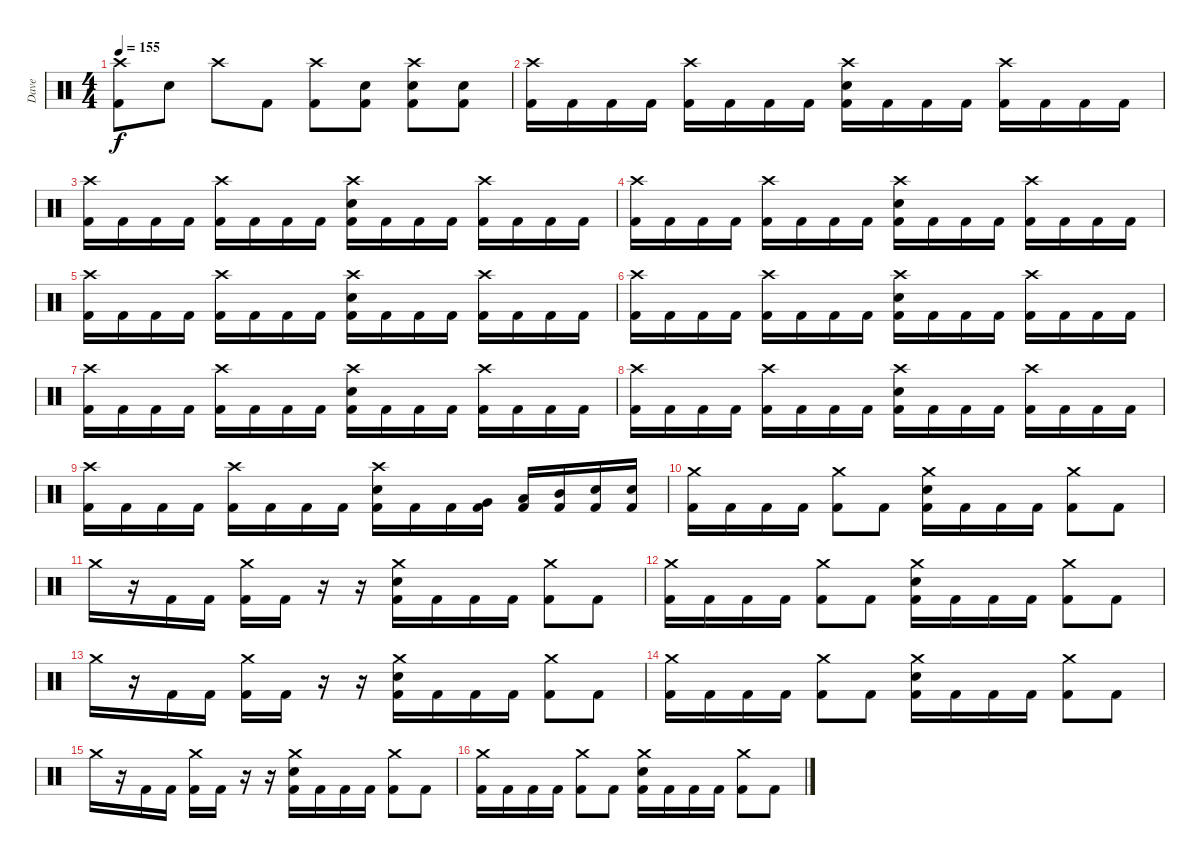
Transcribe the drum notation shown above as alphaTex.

\track ("Dave" "Dave") {instrument percussion}
\staff {score}
\articulation defaults
\ts (4 4)
\tempo 155
\clef neutral
\ks c
("Crash high (hit)" "Kick (hit) 2").8{dy f} "Snare (hit) 2".8 "Crash high (hit)".8 "Kick (hit) 2".8 ("Crash high (hit)" "Kick (hit) 2").8 ("Snare (hit) 2" "Kick (hit) 2").8 ("Crash high (hit)" "Snare (hit) 2" "Kick (hit) 2").8 ("Snare (hit) 2" "Kick (hit) 2").8 |
("Crash high (hit)" "Kick (hit) 2").16 "Kick (hit) 2".16 "Kick (hit) 2".16 "Kick (hit) 2".16 ("Crash high (hit)" "Kick (hit) 2").16 "Kick (hit) 2".16 "Kick (hit) 2".16 "Kick (hit) 2".16 ("Crash high (hit)" "Snare (hit) 2" "Kick (hit) 2").16 "Kick (hit) 2".16 "Kick (hit) 2".16 "Kick (hit) 2".16 ("Crash high (hit)" "Kick (hit) 2").16 "Kick (hit) 2".16 "Kick (hit) 2".16 "Kick (hit) 2".16 |
("Crash high (hit)" "Kick (hit) 2").16 "Kick (hit) 2".16 "Kick (hit) 2".16 "Kick (hit) 2".16 ("Crash high (hit)" "Kick (hit) 2").16 "Kick (hit) 2".16 "Kick (hit) 2".16 "Kick (hit) 2".16 ("Crash high (hit)" "Snare (hit) 2" "Kick (hit) 2").16 "Kick (hit) 2".16 "Kick (hit) 2".16 "Kick (hit) 2".16 ("Crash high (hit)" "Kick (hit) 2").16 "Kick (hit) 2".16 "Kick (hit) 2".16 "Kick (hit) 2".16 |
("Crash high (hit)" "Kick (hit) 2").16 "Kick (hit) 2".16 "Kick (hit) 2".16 "Kick (hit) 2".16 ("Crash high (hit)" "Kick (hit) 2").16 "Kick (hit) 2".16 "Kick (hit) 2".16 "Kick (hit) 2".16 ("Crash high (hit)" "Snare (hit) 2" "Kick (hit) 2").16 "Kick (hit) 2".16 "Kick (hit) 2".16 "Kick (hit) 2".16 ("Crash high (hit)" "Kick (hit) 2").16 "Kick (hit) 2".16 "Kick (hit) 2".16 "Kick (hit) 2".16 |
("Crash high (hit)" "Kick (hit) 2").16 "Kick (hit) 2".16 "Kick (hit) 2".16 "Kick (hit) 2".16 ("Crash high (hit)" "Kick (hit) 2").16 "Kick (hit) 2".16 "Kick (hit) 2".16 "Kick (hit) 2".16 ("Crash high (hit)" "Snare (hit) 2" "Kick (hit) 2").16 "Kick (hit) 2".16 "Kick (hit) 2".16 "Kick (hit) 2".16 ("Crash high (hit)" "Kick (hit) 2").16 "Kick (hit) 2".16 "Kick (hit) 2".16 "Kick (hit) 2".16 |
("Crash high (hit)" "Kick (hit) 2").16 "Kick (hit) 2".16 "Kick (hit) 2".16 "Kick (hit) 2".16 ("Crash high (hit)" "Kick (hit) 2").16 "Kick (hit) 2".16 "Kick (hit) 2".16 "Kick (hit) 2".16 ("Crash high (hit)" "Snare (hit) 2" "Kick (hit) 2").16 "Kick (hit) 2".16 "Kick (hit) 2".16 "Kick (hit) 2".16 ("Crash high (hit)" "Kick (hit) 2").16 "Kick (hit) 2".16 "Kick (hit) 2".16 "Kick (hit) 2".16 |
("Crash high (hit)" "Kick (hit) 2").16 "Kick (hit) 2".16 "Kick (hit) 2".16 "Kick (hit) 2".16 ("Crash high (hit)" "Kick (hit) 2").16 "Kick (hit) 2".16 "Kick (hit) 2".16 "Kick (hit) 2".16 ("Crash high (hit)" "Snare (hit) 2" "Kick (hit) 2").16 "Kick (hit) 2".16 "Kick (hit) 2".16 "Kick (hit) 2".16 ("Crash high (hit)" "Kick (hit) 2").16 "Kick (hit) 2".16 "Kick (hit) 2".16 "Kick (hit) 2".16 |
("Crash high (hit)" "Kick (hit) 2").16 "Kick (hit) 2".16 "Kick (hit) 2".16 "Kick (hit) 2".16 ("Crash high (hit)" "Kick (hit) 2").16 "Kick (hit) 2".16 "Kick (hit) 2".16 "Kick (hit) 2".16 ("Crash high (hit)" "Snare (hit) 2" "Kick (hit) 2").16 "Kick (hit) 2".16 "Kick (hit) 2".16 "Kick (hit) 2".16 ("Crash high (hit)" "Kick (hit) 2").16 "Kick (hit) 2".16 "Kick (hit) 2".16 "Kick (hit) 2".16 |
("Crash high (hit)" "Kick (hit) 2").16 "Kick (hit) 2".16 "Kick (hit) 2".16 "Kick (hit) 2".16 ("Crash high (hit)" "Kick (hit) 2").16 "Kick (hit) 2".16 "Kick (hit) 2".16 "Kick (hit) 2".16 ("Crash high (hit)" "Snare (hit) 2" "Kick (hit) 2").16 "Kick (hit) 2".16 "Kick (hit) 2".16 ("Very Low Tom (hit)" "Kick (hit) 2").16 ("Low Tom (hit)" "Kick (hit) 2").16 ("Mid Tom (hit)" "Kick (hit) 2").16 ("Snare (hit) 2" "Kick (hit) 2").16 ("Snare (hit) 2" "Kick (hit) 2").16 |
("Crash medium (hit)" "Kick (hit) 2").16 "Kick (hit) 2".16 "Kick (hit) 2".16 "Kick (hit) 2".16 ("Crash medium (hit)" "Kick (hit) 2").8 "Kick (hit) 2".8 ("Crash medium (hit)" "Snare (hit) 2" "Kick (hit) 2").16 "Kick (hit) 2".16 "Kick (hit) 2".16 "Kick (hit) 2".16 ("Crash medium (hit)" "Kick (hit) 2").8 "Kick (hit) 2".8 |
"Crash medium (hit)".16 r.16 "Kick (hit) 2".16 "Kick (hit) 2".16 ("Crash medium (hit)" "Kick (hit) 2").16 "Kick (hit) 2".16 r.16 r.16 ("Crash medium (hit)" "Snare (hit) 2" "Kick (hit) 2").16 "Kick (hit) 2".16 "Kick (hit) 2".16 "Kick (hit) 2".16 ("Crash medium (hit)" "Kick (hit) 2").8 "Kick (hit) 2".8 |
("Crash medium (hit)" "Kick (hit) 2").16 "Kick (hit) 2".16 "Kick (hit) 2".16 "Kick (hit) 2".16 ("Crash medium (hit)" "Kick (hit) 2").8 "Kick (hit) 2".8 ("Crash medium (hit)" "Snare (hit) 2" "Kick (hit) 2").16 "Kick (hit) 2".16 "Kick (hit) 2".16 "Kick (hit) 2".16 ("Crash medium (hit)" "Kick (hit) 2").8 "Kick (hit) 2".8 |
"Crash medium (hit)".16 r.16 "Kick (hit) 2".16 "Kick (hit) 2".16 ("Crash medium (hit)" "Kick (hit) 2").16 "Kick (hit) 2".16 r.16 r.16 ("Crash medium (hit)" "Snare (hit) 2" "Kick (hit) 2").16 "Kick (hit) 2".16 "Kick (hit) 2".16 "Kick (hit) 2".16 ("Crash medium (hit)" "Kick (hit) 2").8 "Kick (hit) 2".8 |
("Crash medium (hit)" "Kick (hit) 2").16 "Kick (hit) 2".16 "Kick (hit) 2".16 "Kick (hit) 2".16 ("Crash medium (hit)" "Kick (hit) 2").8 "Kick (hit) 2".8 ("Crash medium (hit)" "Snare (hit) 2" "Kick (hit) 2").16 "Kick (hit) 2".16 "Kick (hit) 2".16 "Kick (hit) 2".16 ("Crash medium (hit)" "Kick (hit) 2").8 "Kick (hit) 2".8 |
"Crash medium (hit)".16 r.16 "Kick (hit) 2".16 "Kick (hit) 2".16 ("Crash medium (hit)" "Kick (hit) 2").16 "Kick (hit) 2".16 r.16 r.16 ("Crash medium (hit)" "Snare (hit) 2" "Kick (hit) 2").16 "Kick (hit) 2".16 "Kick (hit) 2".16 "Kick (hit) 2".16 ("Crash medium (hit)" "Kick (hit) 2").8 "Kick (hit) 2".8 |
("Crash medium (hit)" "Kick (hit) 2").16 "Kick (hit) 2".16 "Kick (hit) 2".16 "Kick (hit) 2".16 ("Crash medium (hit)" "Kick (hit) 2").8 "Kick (hit) 2".8 ("Crash medium (hit)" "Snare (hit) 2" "Kick (hit) 2").16 "Kick (hit) 2".16 "Kick (hit) 2".16 "Kick (hit) 2".16 ("Crash medium (hit)" "Kick (hit) 2").8 "Kick (hit) 2".8
